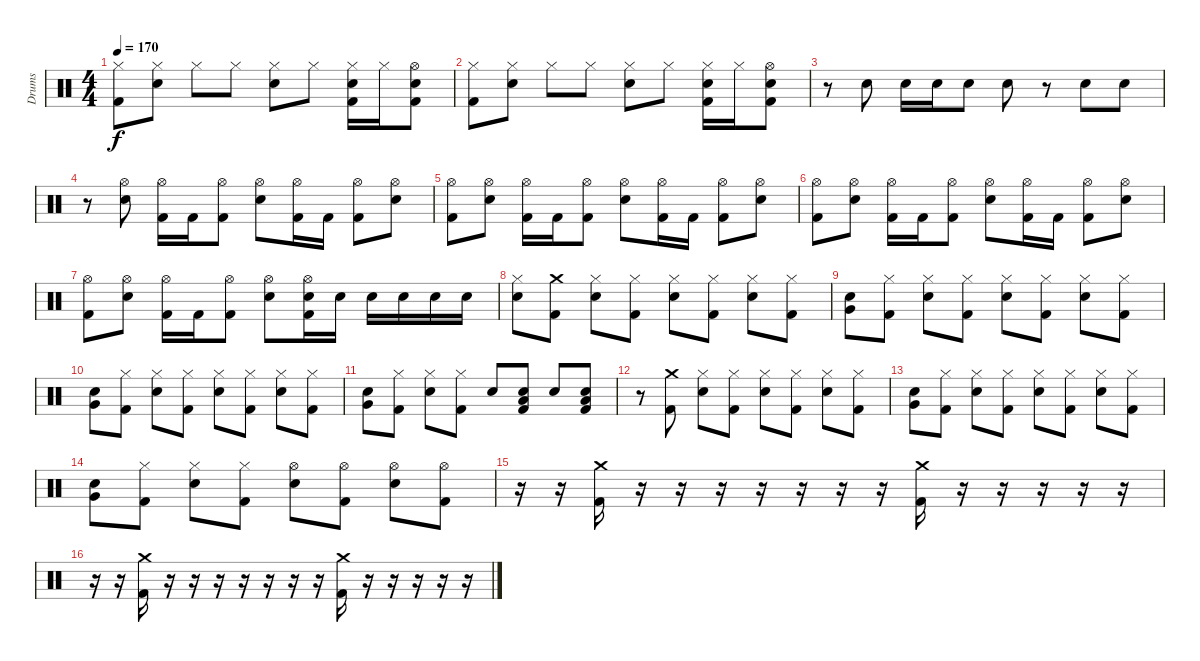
\track ("Drums" "Drums") {instrument percussion}
\staff {score}
\articulation defaults
\ts (4 4)
\tempo 170
\clef neutral
\ks c
("Hi-Hat (closed)" "Kick (hit) 2").8{dy f} ("Hi-Hat (closed)" "Snare (hit) 2").8 "Hi-Hat (closed)".8 "Hi-Hat (closed)".8 ("Hi-Hat (closed)" "Snare (hit) 2").8 "Hi-Hat (closed)".8 ("Hi-Hat (closed)" "Snare (hit) 2" "Kick (hit) 2").16 "Hi-Hat (closed)".16 ("Hi-Hat (open)" "Snare (hit) 2" "Kick (hit) 2").8 |
("Hi-Hat (closed)" "Kick (hit) 2").8 ("Hi-Hat (closed)" "Snare (hit) 2").8 "Hi-Hat (closed)".8 "Hi-Hat (closed)".8 ("Hi-Hat (closed)" "Snare (hit) 2").8 "Hi-Hat (closed)".8 ("Hi-Hat (closed)" "Snare (hit) 2" "Kick (hit) 2").16 "Hi-Hat (closed)".16 ("Hi-Hat (open)" "Snare (hit) 2" "Kick (hit) 2").8 |
r.8 "Snare (hit) 2".8 "Snare (hit) 2".16 "Snare (hit) 2".16 "Snare (hit) 2".8 "Snare (hit) 2".8 r.8 "Snare (hit) 2".8 "Snare (hit) 2".8 |
r.8 ("Hi-Hat (open)" "Snare (hit) 2").8 ("Hi-Hat (open)" "Kick (hit) 2").16 "Kick (hit) 2".16 ("Hi-Hat (open)" "Kick (hit) 2").8 ("Hi-Hat (open)" "Snare (hit) 2").8 ("Hi-Hat (open)" "Kick (hit) 2").16 "Kick (hit) 2".16 ("Hi-Hat (open)" "Kick (hit) 2").8 ("Hi-Hat (open)" "Snare (hit) 2").8 |
("Hi-Hat (open)" "Kick (hit) 2").8 ("Hi-Hat (open)" "Snare (hit) 2").8 ("Hi-Hat (open)" "Kick (hit) 2").16 "Kick (hit) 2".16 ("Hi-Hat (open)" "Kick (hit) 2").8 ("Hi-Hat (open)" "Snare (hit) 2").8 ("Hi-Hat (open)" "Kick (hit) 2").16 "Kick (hit) 2".16 ("Hi-Hat (open)" "Kick (hit) 2").8 ("Hi-Hat (open)" "Snare (hit) 2").8 |
("Hi-Hat (open)" "Kick (hit) 2").8 ("Hi-Hat (open)" "Snare (hit) 2").8 ("Hi-Hat (open)" "Kick (hit) 2").16 "Kick (hit) 2".16 ("Hi-Hat (open)" "Kick (hit) 2").8 ("Hi-Hat (open)" "Snare (hit) 2").8 ("Hi-Hat (open)" "Kick (hit) 2").16 "Kick (hit) 2".16 ("Hi-Hat (open)" "Kick (hit) 2").8 ("Hi-Hat (open)" "Snare (hit) 2").8 |
("Hi-Hat (open)" "Kick (hit) 2").8 ("Hi-Hat (open)" "Snare (hit) 2").8 ("Hi-Hat (open)" "Kick (hit) 2").16 "Kick (hit) 2".16 ("Hi-Hat (open)" "Kick (hit) 2").8 ("Hi-Hat (open)" "Snare (hit) 2").8 ("Hi-Hat (open)" "Snare (hit) 2" "Kick (hit) 2").16 "Snare (hit) 2".16 "Snare (hit) 2".16 "Snare (hit) 2".16 "Snare (hit) 2".16 "Snare (hit) 2".16 |
("Hi-Hat (closed)" "Snare (hit) 2").8 ("Crash medium (hit)" "Kick (hit) 2").8 ("Hi-Hat (closed)" "Snare (hit) 2").8 ("Hi-Hat (closed)" "Kick (hit) 2").8 ("Hi-Hat (closed)" "Snare (hit) 2").8 ("Hi-Hat (closed)" "Kick (hit) 2").8 ("Hi-Hat (closed)" "Snare (hit) 2").8 ("Hi-Hat (closed)" "Kick (hit) 2").8 |
("Very Low Tom (hit)" "Snare (hit) 2").8 ("Hi-Hat (closed)" "Kick (hit) 2").8 ("Hi-Hat (closed)" "Snare (hit) 2").8 ("Hi-Hat (closed)" "Kick (hit) 2").8 ("Hi-Hat (closed)" "Snare (hit) 2").8 ("Hi-Hat (closed)" "Kick (hit) 2").8 ("Hi-Hat (closed)" "Snare (hit) 2").8 ("Hi-Hat (closed)" "Kick (hit) 2").8 |
("Very Low Tom (hit)" "Snare (hit) 2").8 ("Hi-Hat (closed)" "Kick (hit) 2").8 ("Hi-Hat (closed)" "Snare (hit) 2").8 ("Hi-Hat (closed)" "Kick (hit) 2").8 ("Hi-Hat (closed)" "Snare (hit) 2").8 ("Hi-Hat (closed)" "Kick (hit) 2").8 ("Hi-Hat (closed)" "Snare (hit) 2").8 ("Hi-Hat (closed)" "Kick (hit) 2").8 |
("Very Low Tom (hit)" "Snare (hit) 2").8 ("Hi-Hat (closed)" "Kick (hit) 2").8 ("Hi-Hat (closed)" "Snare (hit) 2").8 ("Hi-Hat (closed)" "Kick (hit) 2").8 "Snare (hit) 2".8 ("Low Floor Tom (hit)" "Snare (hit) 2" "Kick (hit) 2").8 "Snare (hit) 2".8 ("Low Floor Tom (hit)" "Snare (hit) 2" "Kick (hit) 2").8 |
r.8 ("Crash medium (hit)" "Kick (hit) 2").8 ("Hi-Hat (closed)" "Snare (hit) 2").8 ("Hi-Hat (closed)" "Kick (hit) 2").8 ("Hi-Hat (closed)" "Snare (hit) 2").8 ("Hi-Hat (closed)" "Kick (hit) 2").8 ("Hi-Hat (closed)" "Snare (hit) 2").8 ("Hi-Hat (closed)" "Kick (hit) 2").8 |
("Very Low Tom (hit)" "Snare (hit) 2").8 ("Hi-Hat (closed)" "Kick (hit) 2").8 ("Hi-Hat (closed)" "Snare (hit) 2").8 ("Hi-Hat (closed)" "Kick (hit) 2").8 ("Hi-Hat (closed)" "Snare (hit) 2").8 ("Hi-Hat (closed)" "Kick (hit) 2").8 ("Hi-Hat (closed)" "Snare (hit) 2").8 ("Hi-Hat (closed)" "Kick (hit) 2").8 |
("Very Low Tom (hit)" "Snare (hit) 2").8 ("Hi-Hat (closed)" "Kick (hit) 2").8 ("Hi-Hat (closed)" "Snare (hit) 2").8 ("Hi-Hat (closed)" "Kick (hit) 2").8 ("Hi-Hat (open)" "Snare (hit) 2").8 ("Hi-Hat (open)" "Kick (hit) 2").8 ("Hi-Hat (open)" "Snare (hit) 2").8 ("Hi-Hat (open)" "Kick (hit) 2").8 |
r.16 r.16 ("Crash medium (hit)" "Kick (hit) 2").16 r.16 r.16 r.16 r.16 r.16 r.16 r.16 ("Crash medium (hit)" "Kick (hit) 2").16 r.16 r.16 r.16 r.16 r.16 |
r.16 r.16 ("Crash medium (hit)" "Kick (hit) 2").16 r.16 r.16 r.16 r.16 r.16 r.16 r.16 ("Crash medium (hit)" "Kick (hit) 2").16 r.16 r.16 r.16 r.16 r.16
